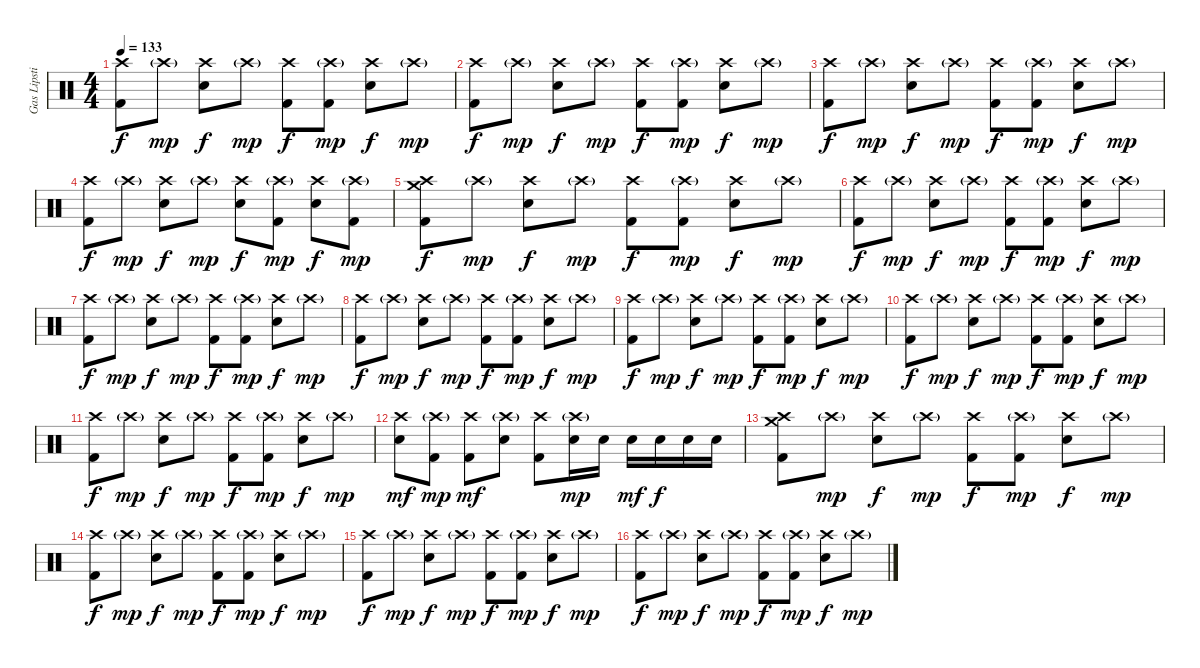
\track ("Gas Lipstick (Drums)" "Gas Lipsti") {instrument percussion}
\staff {score}
\articulation defaults
\ts (4 4)
\tempo 133
\clef neutral
\ks c
("Crash high (hit)" "Kick (hit) 2").8{dy f} "Crash high (hit)"{g}.8{dy mp} ("Crash high (hit)" "Snare (hit) 2").8{dy f} "Crash high (hit)"{g}.8{dy mp} ("Crash high (hit)" "Kick (hit) 2").8{dy f} ("Crash high (hit)"{g} "Kick (hit) 2").8{dy mp} ("Crash high (hit)" "Snare (hit) 2").8{dy f} "Crash high (hit)"{g}.8{dy mp} |
("Crash high (hit)" "Kick (hit) 2").8{dy f} "Crash high (hit)"{g}.8{dy mp} ("Crash high (hit)" "Snare (hit) 2").8{dy f} "Crash high (hit)"{g}.8{dy mp} ("Crash high (hit)" "Kick (hit) 2").8{dy f} ("Crash high (hit)"{g} "Kick (hit) 2").8{dy mp} ("Crash high (hit)" "Snare (hit) 2").8{dy f} "Crash high (hit)"{g}.8{dy mp} |
("Crash high (hit)" "Kick (hit) 2").8{dy f} "Crash high (hit)"{g}.8{dy mp} ("Crash high (hit)" "Snare (hit) 2").8{dy f} "Crash high (hit)"{g}.8{dy mp} ("Crash high (hit)" "Kick (hit) 2").8{dy f} ("Crash high (hit)"{g} "Kick (hit) 2").8{dy mp} ("Crash high (hit)" "Snare (hit) 2").8{dy f} "Crash high (hit)"{g}.8{dy mp} |
("Crash high (hit)" "Kick (hit) 2").8{dy f} "Crash high (hit)"{g}.8{dy mp} ("Crash high (hit)" "Snare (hit) 2").8{dy f} "Crash high (hit)"{g}.8{dy mp} ("Crash high (hit)" "Snare (hit) 2").8{dy f} ("Crash high (hit)"{g} "Kick (hit) 2").8{dy mp} ("Crash high (hit)" "Snare (hit) 2").8{dy f} ("Crash high (hit)"{g} "Kick (hit) 2").8{dy mp} |
("Crash medium (hit)" "Crash high (hit)" "Kick (hit) 2").8{dy f} "Crash high (hit)"{g}.8{dy mp} ("Crash high (hit)" "Snare (hit) 2").8{dy f} "Crash high (hit)"{g}.8{dy mp} ("Crash high (hit)" "Kick (hit) 2").8{dy f} ("Crash high (hit)"{g} "Kick (hit) 2").8{dy mp} ("Crash high (hit)" "Snare (hit) 2").8{dy f} "Crash high (hit)"{g}.8{dy mp} |
("Crash high (hit)" "Kick (hit) 2").8{dy f} "Crash high (hit)"{g}.8{dy mp} ("Crash high (hit)" "Snare (hit) 2").8{dy f} "Crash high (hit)"{g}.8{dy mp} ("Crash high (hit)" "Kick (hit) 2").8{dy f} ("Crash high (hit)"{g} "Kick (hit) 2").8{dy mp} ("Crash high (hit)" "Snare (hit) 2").8{dy f} "Crash high (hit)"{g}.8{dy mp} |
("Crash high (hit)" "Kick (hit) 2").8{dy f} "Crash high (hit)"{g}.8{dy mp} ("Crash high (hit)" "Snare (hit) 2").8{dy f} "Crash high (hit)"{g}.8{dy mp} ("Crash high (hit)" "Kick (hit) 2").8{dy f} ("Crash high (hit)"{g} "Kick (hit) 2").8{dy mp} ("Crash high (hit)" "Snare (hit) 2").8{dy f} "Crash high (hit)"{g}.8{dy mp} |
("Crash high (hit)" "Kick (hit) 2").8{dy f} "Crash high (hit)"{g}.8{dy mp} ("Crash high (hit)" "Snare (hit) 2").8{dy f} "Crash high (hit)"{g}.8{dy mp} ("Crash high (hit)" "Kick (hit) 2").8{dy f} ("Crash high (hit)"{g} "Kick (hit) 2").8{dy mp} ("Crash high (hit)" "Snare (hit) 2").8{dy f} "Crash high (hit)"{g}.8{dy mp} |
("Crash high (hit)" "Kick (hit) 2").8{dy f} "Crash high (hit)"{g}.8{dy mp} ("Crash high (hit)" "Snare (hit) 2").8{dy f} "Crash high (hit)"{g}.8{dy mp} ("Crash high (hit)" "Kick (hit) 2").8{dy f} ("Crash high (hit)"{g} "Kick (hit) 2").8{dy mp} ("Crash high (hit)" "Snare (hit) 2").8{dy f} "Crash high (hit)"{g}.8{dy mp} |
("Crash high (hit)" "Kick (hit) 2").8{dy f} "Crash high (hit)"{g}.8{dy mp} ("Crash high (hit)" "Snare (hit) 2").8{dy f} "Crash high (hit)"{g}.8{dy mp} ("Crash high (hit)" "Kick (hit) 2").8{dy f} ("Crash high (hit)"{g} "Kick (hit) 2").8{dy mp} ("Crash high (hit)" "Snare (hit) 2").8{dy f} "Crash high (hit)"{g}.8{dy mp} |
("Crash high (hit)" "Kick (hit) 2").8{dy f} "Crash high (hit)"{g}.8{dy mp} ("Crash high (hit)" "Snare (hit) 2").8{dy f} "Crash high (hit)"{g}.8{dy mp} ("Crash high (hit)" "Kick (hit) 2").8{dy f} ("Crash high (hit)"{g} "Kick (hit) 2").8{dy mp} ("Crash high (hit)" "Snare (hit) 2").8{dy f} "Crash high (hit)"{g}.8{dy mp} |
("Crash high (hit)" "Snare (hit) 2").8{dy mf} ("Crash high (hit)"{g} "Kick (hit) 2").8{dy mp} ("Crash high (hit)" "Kick (hit) 2").8{dy mf} ("Crash high (hit)"{g} "Snare (hit) 2").8 ("Crash high (hit)" "Kick (hit) 2").8 ("Crash high (hit)"{g} "Snare (hit) 2").16{dy mp} "Snare (hit) 2".16 "Snare (hit) 2".16{dy mf} "Snare (hit) 2".16{dy f} "Snare (hit) 2".16 "Snare (hit) 2".16 |
("Crash medium (hit)" "Crash high (hit)" "Kick (hit) 2").8 "Crash high (hit)"{g}.8{dy mp} ("Crash high (hit)" "Snare (hit) 2").8{dy f} "Crash high (hit)"{g}.8{dy mp} ("Crash high (hit)" "Kick (hit) 2").8{dy f} ("Crash high (hit)"{g} "Kick (hit) 2").8{dy mp} ("Crash high (hit)" "Snare (hit) 2").8{dy f} "Crash high (hit)"{g}.8{dy mp} |
("Crash high (hit)" "Kick (hit) 2").8{dy f} "Crash high (hit)"{g}.8{dy mp} ("Crash high (hit)" "Snare (hit) 2").8{dy f} "Crash high (hit)"{g}.8{dy mp} ("Crash high (hit)" "Kick (hit) 2").8{dy f} ("Crash high (hit)"{g} "Kick (hit) 2").8{dy mp} ("Crash high (hit)" "Snare (hit) 2").8{dy f} "Crash high (hit)"{g}.8{dy mp} |
("Crash high (hit)" "Kick (hit) 2").8{dy f} "Crash high (hit)"{g}.8{dy mp} ("Crash high (hit)" "Snare (hit) 2").8{dy f} "Crash high (hit)"{g}.8{dy mp} ("Crash high (hit)" "Kick (hit) 2").8{dy f} ("Crash high (hit)"{g} "Kick (hit) 2").8{dy mp} ("Crash high (hit)" "Snare (hit) 2").8{dy f} "Crash high (hit)"{g}.8{dy mp} |
("Crash high (hit)" "Kick (hit) 2").8{dy f} "Crash high (hit)"{g}.8{dy mp} ("Crash high (hit)" "Snare (hit) 2").8{dy f} "Crash high (hit)"{g}.8{dy mp} ("Crash high (hit)" "Kick (hit) 2").8{dy f} ("Crash high (hit)"{g} "Kick (hit) 2").8{dy mp} ("Crash high (hit)" "Snare (hit) 2").8{dy f} "Crash high (hit)"{g}.8{dy mp}
